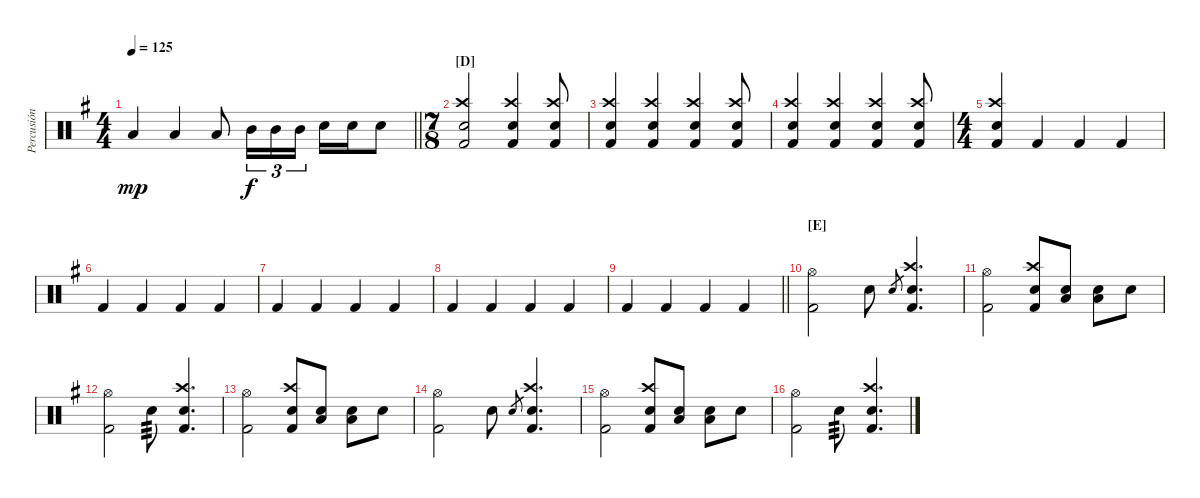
\track ("Percusión" "Percusión") {instrument percussion}
\staff {score}
\articulation defaults
\ts (4 4)
\tempo 125
\clef neutral
\barLineRight lightlight
\ks g "Low Floor Tom (hit)".4{dy mp} "Low Floor Tom (hit)".4 "Low Floor Tom (hit)".8 "Mid Tom (hit)".16{tu (3 2) dy f} "Mid Tom (hit)".16{tu (3 2)} "Mid Tom (hit)".16{tu (3 2)} "Snare (hit) 2".16 "Snare (hit) 2".16 "Snare (hit) 2".8
|
\ts (7 8)
\section ("" "[D]")
("Crash high (hit)" "Snare (hit) 2" "Kick (hit) 2").2 ("Crash high (hit)" "Snare (hit) 2" "Kick (hit) 2").4 ("Crash high (hit)" "Snare (hit) 2" "Kick (hit) 2").8 |
("Crash high (hit)" "Snare (hit) 2" "Kick (hit) 2").4 ("Crash high (hit)" "Snare (hit) 2" "Kick (hit) 2").4 ("Crash high (hit)" "Snare (hit) 2" "Kick (hit) 2").4 ("Crash high (hit)" "Snare (hit) 2" "Kick (hit) 2").8 |
("Crash high (hit)" "Snare (hit) 2" "Kick (hit) 2").4 ("Crash high (hit)" "Snare (hit) 2" "Kick (hit) 2").4 ("Crash high (hit)" "Snare (hit) 2" "Kick (hit) 2").4 ("Crash high (hit)" "Snare (hit) 2" "Kick (hit) 2").8 |
\ts (4 4)
("Crash high (hit)" "Kick (hit) 2" "Snare (hit) 2").4 "Kick (hit) 2".4 "Kick (hit) 2".4 "Kick (hit) 2".4 |
"Kick (hit) 2".4 "Kick (hit) 2".4 "Kick (hit) 2".4 "Kick (hit) 2".4 |
"Kick (hit) 2".4 "Kick (hit) 2".4 "Kick (hit) 2".4 "Kick (hit) 2".4 |
"Kick (hit) 2".4 "Kick (hit) 2".4 "Kick (hit) 2".4 "Kick (hit) 2".4 |
\barLineRight lightlight "Kick (hit) 2".4 "Kick (hit) 2".4 "Kick (hit) 2".4 "Kick (hit) 2".4
|
\section ("" "[E]")
("Hi-Hat (open)" "Kick (hit) 2").2 "Snare (hit) 2".8 "Snare (hit) 2".8{gr} ("Crash high (hit)" "Snare (hit) 2" "Kick (hit) 2").4{d} |
("Hi-Hat (open)" "Kick (hit) 2").2 ("Crash high (hit)" "Snare (hit) 2" "Kick (hit) 2").8 ("Low Floor Tom (hit)" "Snare (hit) 2").8 ("Low Floor Tom (hit)" "Snare (hit) 2").8 "Snare (hit) 2".8 |
("Hi-Hat (open)" "Kick (hit) 2").2 "Snare (hit) 2".8{tp 3} ("Crash high (hit)" "Snare (hit) 2" "Kick (hit) 2").4{d} |
("Hi-Hat (open)" "Kick (hit) 2").2 ("Crash high (hit)" "Snare (hit) 2" "Kick (hit) 2").8 ("Low Floor Tom (hit)" "Snare (hit) 2").8 ("Low Floor Tom (hit)" "Snare (hit) 2").8 "Snare (hit) 2".8 |
("Hi-Hat (open)" "Kick (hit) 2").2 "Snare (hit) 2".8 "Snare (hit) 2".8{gr} ("Crash high (hit)" "Snare (hit) 2" "Kick (hit) 2").4{d} |
("Hi-Hat (open)" "Kick (hit) 2").2 ("Crash high (hit)" "Snare (hit) 2" "Kick (hit) 2").8 ("Low Floor Tom (hit)" "Snare (hit) 2").8 ("Low Floor Tom (hit)" "Snare (hit) 2").8 "Snare (hit) 2".8 |
("Hi-Hat (open)" "Kick (hit) 2").2 "Snare (hit) 2".8{tp 3} ("Crash high (hit)" "Snare (hit) 2" "Kick (hit) 2").4{d}
